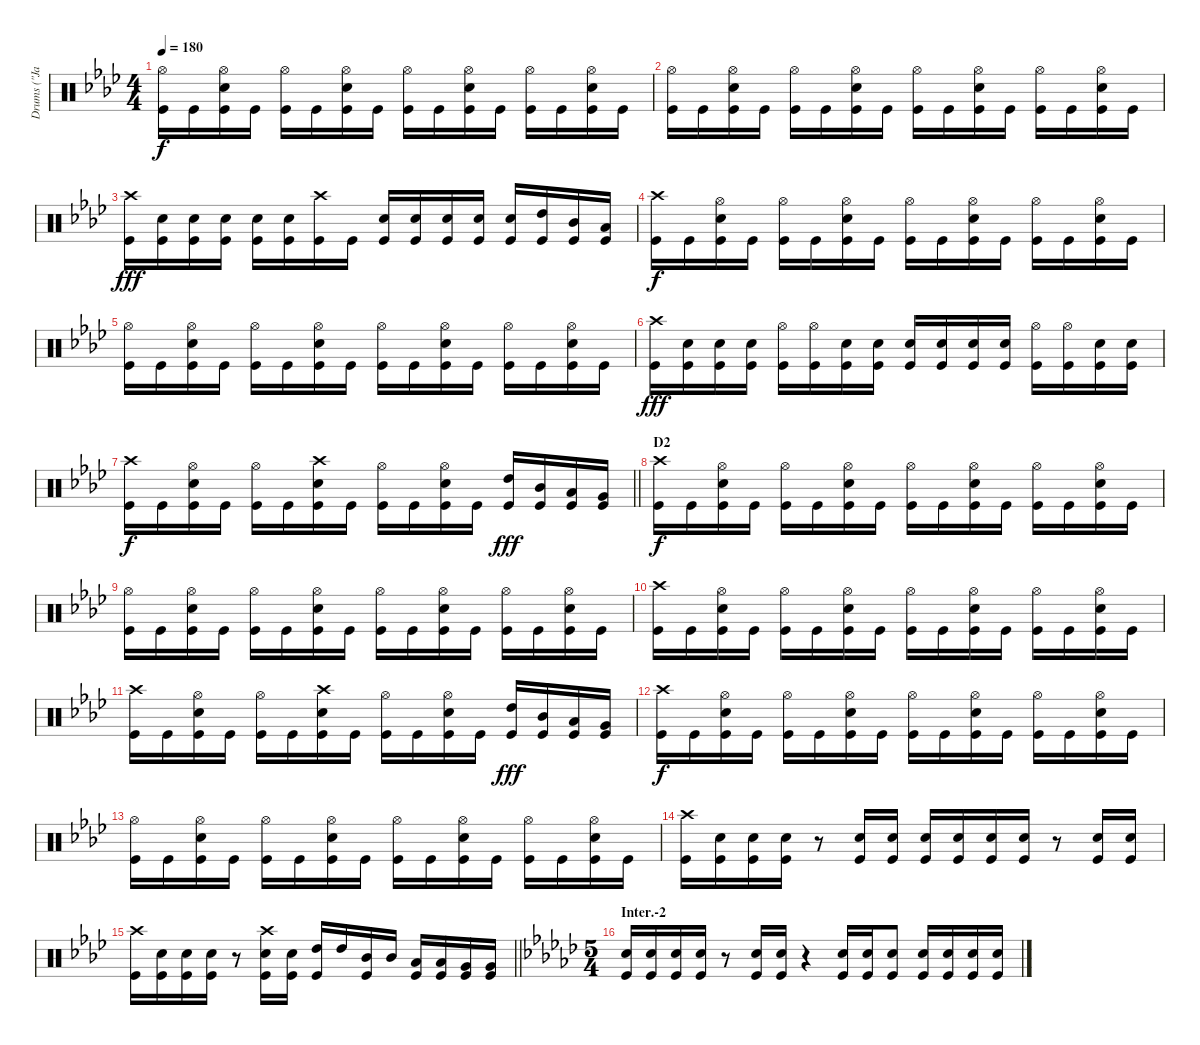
\track ("Drums (\"Jane\")" "Drums (\"Ja") {instrument percussion}
\staff {score}
\articulation defaults
\ts (4 4)
\tempo 180
\clef neutral
\ks ab
("Hi-Hat (open)" "Kick (hit)").16{dy f} "Kick (hit)".16 ("Hi-Hat (open)" "Snare (hit) 2" "Kick (hit)").16 "Kick (hit)".16 ("Hi-Hat (open)" "Kick (hit)").16 "Kick (hit)".16 ("Hi-Hat (open)" "Snare (hit) 2" "Kick (hit)").16 "Kick (hit)".16 ("Hi-Hat (open)" "Kick (hit)").16 "Kick (hit)".16 ("Hi-Hat (open)" "Snare (hit) 2" "Kick (hit)").16 "Kick (hit)".16 ("Hi-Hat (open)" "Kick (hit)").16 "Kick (hit)".16 ("Hi-Hat (open)" "Snare (hit) 2" "Kick (hit)").16 "Kick (hit)".16 |
("Hi-Hat (open)" "Kick (hit)").16 "Kick (hit)".16 ("Hi-Hat (open)" "Snare (hit) 2" "Kick (hit)").16 "Kick (hit)".16 ("Hi-Hat (open)" "Kick (hit)").16 "Kick (hit)".16 ("Hi-Hat (open)" "Snare (hit) 2" "Kick (hit)").16 "Kick (hit)".16 ("Hi-Hat (open)" "Kick (hit)").16 "Kick (hit)".16 ("Hi-Hat (open)" "Snare (hit) 2" "Kick (hit)").16 "Kick (hit)".16 ("Hi-Hat (open)" "Kick (hit)").16 "Kick (hit)".16 ("Hi-Hat (open)" "Snare (hit) 2" "Kick (hit)").16 "Kick (hit)".16 |
("Crash high (hit)" "Kick (hit)").16{dy fff} ("Snare (hit) 2" "Kick (hit)").16 ("Snare (hit) 2" "Kick (hit)").16 ("Snare (hit) 2" "Kick (hit)").16 ("Snare (hit) 2" "Kick (hit)").16 ("Snare (hit) 2" "Kick (hit)").16 ("Crash high (hit)" "Kick (hit)").16 "Kick (hit)".16 ("Snare (hit) 2" "Kick (hit)").16 ("Snare (hit) 2" "Kick (hit)").16 ("Snare (hit) 2" "Kick (hit)").16 ("Snare (hit) 2" "Kick (hit)").16 ("Snare (hit) 2" "Kick (hit)").16 ("High Tom (hit)" "Kick (hit)").16 ("Mid Tom (hit)" "Kick (hit)").16 ("Low Tom (hit)" "Kick (hit)").16 |
("Crash high (hit)" "Kick (hit)").16{dy f} "Kick (hit)".16 ("Hi-Hat (open)" "Snare (hit) 2" "Kick (hit)").16 "Kick (hit)".16 ("Hi-Hat (open)" "Kick (hit)").16 "Kick (hit)".16 ("Hi-Hat (open)" "Snare (hit) 2" "Kick (hit)").16 "Kick (hit)".16 ("Hi-Hat (open)" "Kick (hit)").16 "Kick (hit)".16 ("Hi-Hat (open)" "Snare (hit) 2" "Kick (hit)").16 "Kick (hit)".16 ("Hi-Hat (open)" "Kick (hit)").16 "Kick (hit)".16 ("Hi-Hat (open)" "Snare (hit) 2" "Kick (hit)").16 "Kick (hit)".16 |
("Hi-Hat (open)" "Kick (hit)").16 "Kick (hit)".16 ("Hi-Hat (open)" "Snare (hit) 2" "Kick (hit)").16 "Kick (hit)".16 ("Hi-Hat (open)" "Kick (hit)").16 "Kick (hit)".16 ("Hi-Hat (open)" "Snare (hit) 2" "Kick (hit)").16 "Kick (hit)".16 ("Hi-Hat (open)" "Kick (hit)").16 "Kick (hit)".16 ("Hi-Hat (open)" "Snare (hit) 2" "Kick (hit)").16 "Kick (hit)".16 ("Hi-Hat (open)" "Kick (hit)").16 "Kick (hit)".16 ("Hi-Hat (open)" "Snare (hit) 2" "Kick (hit)").16 "Kick (hit)".16 |
("Crash high (hit)" "Kick (hit)").16{dy fff} ("Snare (hit) 2" "Kick (hit)").16 ("Snare (hit) 2" "Kick (hit)").16 ("Snare (hit) 2" "Kick (hit)").16 ("Hi-Hat (open)" "Kick (hit)").16 ("Hi-Hat (open)" "Kick (hit)").16 ("Snare (hit) 2" "Kick (hit)").16 ("Snare (hit) 2" "Kick (hit)").16 ("Snare (hit) 2" "Kick (hit)").16 ("Snare (hit) 2" "Kick (hit)").16 ("Snare (hit) 2" "Kick (hit)").16 ("Snare (hit) 2" "Kick (hit)").16 ("Hi-Hat (open)" "Kick (hit)").16 ("Hi-Hat (open)" "Kick (hit)").16 ("Snare (hit) 2" "Kick (hit)").16 ("Snare (hit) 2" "Kick (hit)").16 |
\barLineRight lightlight
("Crash high (hit)" "Kick (hit)").16{dy f} "Kick (hit)".16 ("Hi-Hat (open)" "Snare (hit) 2" "Kick (hit)").16 "Kick (hit)".16 ("Hi-Hat (open)" "Kick (hit)").16 "Kick (hit)".16 ("Crash high (hit)" "Snare (hit) 2" "Kick (hit)").16 "Kick (hit)".16 ("Hi-Hat (open)" "Kick (hit)").16 "Kick (hit)".16 ("Hi-Hat (open)" "Snare (hit) 2" "Kick (hit)").16 "Kick (hit)".16 ("High Tom (hit)" "Kick (hit)").16{dy fff} ("Mid Tom (hit)" "Kick (hit)").16 ("Low Tom (hit)" "Kick (hit)").16 ("Very Low Tom (hit)" "Kick (hit)").16 |
\section ("" "D2")
("Crash high (hit)" "Kick (hit)").16{dy f} "Kick (hit)".16 ("Hi-Hat (open)" "Snare (hit) 2" "Kick (hit)").16 "Kick (hit)".16 ("Hi-Hat (open)" "Kick (hit)").16 "Kick (hit)".16 ("Hi-Hat (open)" "Snare (hit) 2" "Kick (hit)").16 "Kick (hit)".16 ("Hi-Hat (open)" "Kick (hit)").16 "Kick (hit)".16 ("Hi-Hat (open)" "Snare (hit) 2" "Kick (hit)").16 "Kick (hit)".16 ("Hi-Hat (open)" "Kick (hit)").16 "Kick (hit)".16 ("Hi-Hat (open)" "Snare (hit) 2" "Kick (hit)").16 "Kick (hit)".16 |
("Hi-Hat (open)" "Kick (hit)").16 "Kick (hit)".16 ("Hi-Hat (open)" "Snare (hit) 2" "Kick (hit)").16 "Kick (hit)".16 ("Hi-Hat (open)" "Kick (hit)").16 "Kick (hit)".16 ("Hi-Hat (open)" "Snare (hit) 2" "Kick (hit)").16 "Kick (hit)".16 ("Hi-Hat (open)" "Kick (hit)").16 "Kick (hit)".16 ("Hi-Hat (open)" "Snare (hit) 2" "Kick (hit)").16 "Kick (hit)".16 ("Hi-Hat (open)" "Kick (hit)").16 "Kick (hit)".16 ("Hi-Hat (open)" "Snare (hit) 2" "Kick (hit)").16 "Kick (hit)".16 |
("Crash high (hit)" "Kick (hit)").16 "Kick (hit)".16 ("Hi-Hat (open)" "Snare (hit) 2" "Kick (hit)").16 "Kick (hit)".16 ("Hi-Hat (open)" "Kick (hit)").16 "Kick (hit)".16 ("Hi-Hat (open)" "Snare (hit) 2" "Kick (hit)").16 "Kick (hit)".16 ("Hi-Hat (open)" "Kick (hit)").16 "Kick (hit)".16 ("Hi-Hat (open)" "Snare (hit) 2" "Kick (hit)").16 "Kick (hit)".16 ("Hi-Hat (open)" "Kick (hit)").16 "Kick (hit)".16 ("Hi-Hat (open)" "Snare (hit) 2" "Kick (hit)").16 "Kick (hit)".16 |
("Crash high (hit)" "Kick (hit)").16 "Kick (hit)".16 ("Hi-Hat (open)" "Snare (hit) 2" "Kick (hit)").16 "Kick (hit)".16 ("Hi-Hat (open)" "Kick (hit)").16 "Kick (hit)".16 ("Crash high (hit)" "Snare (hit) 2" "Kick (hit)").16 "Kick (hit)".16 ("Hi-Hat (open)" "Kick (hit)").16 "Kick (hit)".16 ("Hi-Hat (open)" "Snare (hit) 2" "Kick (hit)").16 "Kick (hit)".16 ("High Tom (hit)" "Kick (hit)").16{dy fff} ("Mid Tom (hit)" "Kick (hit)").16 ("Low Tom (hit)" "Kick (hit)").16 ("Very Low Tom (hit)" "Kick (hit)").16 |
("Crash high (hit)" "Kick (hit)").16{dy f} "Kick (hit)".16 ("Hi-Hat (open)" "Snare (hit) 2" "Kick (hit)").16 "Kick (hit)".16 ("Hi-Hat (open)" "Kick (hit)").16 "Kick (hit)".16 ("Hi-Hat (open)" "Snare (hit) 2" "Kick (hit)").16 "Kick (hit)".16 ("Hi-Hat (open)" "Kick (hit)").16 "Kick (hit)".16 ("Hi-Hat (open)" "Snare (hit) 2" "Kick (hit)").16 "Kick (hit)".16 ("Hi-Hat (open)" "Kick (hit)").16 "Kick (hit)".16 ("Hi-Hat (open)" "Snare (hit) 2" "Kick (hit)").16 "Kick (hit)".16 |
("Hi-Hat (open)" "Kick (hit)").16 "Kick (hit)".16 ("Hi-Hat (open)" "Snare (hit) 2" "Kick (hit)").16 "Kick (hit)".16 ("Hi-Hat (open)" "Kick (hit)").16 "Kick (hit)".16 ("Hi-Hat (open)" "Snare (hit) 2" "Kick (hit)").16 "Kick (hit)".16 ("Hi-Hat (open)" "Kick (hit)").16 "Kick (hit)".16 ("Hi-Hat (open)" "Snare (hit) 2" "Kick (hit)").16 "Kick (hit)".16 ("Hi-Hat (open)" "Kick (hit)").16 "Kick (hit)".16 ("Hi-Hat (open)" "Snare (hit) 2" "Kick (hit)").16 "Kick (hit)".16 |
("Crash high (hit)" "Kick (hit)").16 ("Snare (hit) 2" "Kick (hit)").16 ("Snare (hit) 2" "Kick (hit)").16 ("Snare (hit) 2" "Kick (hit)").16 r.8 ("Snare (hit) 2" "Kick (hit)").16 ("Snare (hit) 2" "Kick (hit)").16 ("Snare (hit) 2" "Kick (hit)").16 ("Snare (hit) 2" "Kick (hit)").16 ("Snare (hit) 2" "Kick (hit)").16 ("Snare (hit) 2" "Kick (hit)").16 r.8 ("Snare (hit) 2" "Kick (hit)").16 ("Snare (hit) 2" "Kick (hit)").16 |
\barLineRight lightlight
("Crash high (hit)" "Kick (hit)").16 ("Snare (hit) 2" "Kick (hit)").16 ("Snare (hit) 2" "Kick (hit)").16 ("Snare (hit) 2" "Kick (hit)").16 r.8 ("Crash high (hit)" "Snare (hit) 2" "Kick (hit)").16 ("Snare (hit) 2" "Kick (hit)").16 ("High Tom (hit)" "Kick (hit)").16 "High Tom (hit)".16 ("Mid Tom (hit)" "Kick (hit)").16 "Mid Tom (hit)".16 ("Low Tom (hit)" "Kick (hit)").16 ("Low Tom (hit)" "Kick (hit)").16 ("Very Low Tom (hit)" "Kick (hit)").16 ("Very Low Tom (hit)" "Kick (hit)").16 |
\ts (5 4)
\section ("" "Inter.-2")
\ks gb
("Snare (hit) 2" "Kick (hit)").16 ("Snare (hit) 2" "Kick (hit)").16 ("Snare (hit) 2" "Kick (hit)").16 ("Snare (hit) 2" "Kick (hit)").16 r.8 ("Snare (hit) 2" "Kick (hit)").16 ("Snare (hit) 2" "Kick (hit)").16 r.4 ("Snare (hit) 2" "Kick (hit)").16 ("Snare (hit) 2" "Kick (hit)").16 ("Snare (hit) 2" "Kick (hit)").8 ("Snare (hit) 2" "Kick (hit)").16 ("Snare (hit) 2" "Kick (hit)").16 ("Snare (hit) 2" "Kick (hit)").16 ("Snare (hit) 2" "Kick (hit)").16
